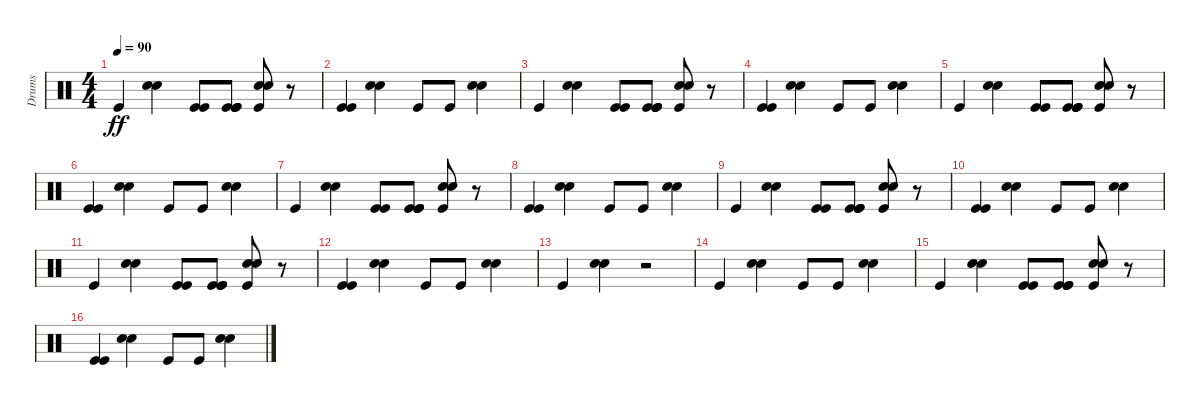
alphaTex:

\track ("Drums" "Drums") {instrument percussion}
\staff {score}
\articulation defaults
\ts (4 4)
\tempo 90
\clef neutral
\ks c "Kick (hit)".4{dy ff}
("Snare (hit) 2" "Hand Clap (hit)").4 ("Kick (hit)" "Kick (hit)").8 ("Kick (hit)" "Kick (hit)" "Kick (hit)" "Kick (hit)").8 ("Snare (hit) 2" "Hand Clap (hit)" "Kick (hit)").8 r.8 |
("Kick (hit)" "Kick (hit)").4 ("Snare (hit) 2" "Hand Clap (hit)").4 "Kick (hit)".8 "Kick (hit)".8 ("Snare (hit) 2" "Hand Clap (hit)").4 |
"Kick (hit)".4 ("Snare (hit) 2" "Hand Clap (hit)").4 ("Kick (hit)" "Kick (hit)").8 ("Kick (hit)" "Kick (hit)" "Kick (hit)" "Kick (hit)").8 ("Snare (hit) 2" "Hand Clap (hit)" "Kick (hit)").8 r.8 |
("Kick (hit)" "Kick (hit)").4 ("Snare (hit) 2" "Hand Clap (hit)").4 "Kick (hit)".8 "Kick (hit)".8 ("Snare (hit) 2" "Hand Clap (hit)").4 |
"Kick (hit)".4 ("Snare (hit) 2" "Hand Clap (hit)").4 ("Kick (hit)" "Kick (hit)").8 ("Kick (hit)" "Kick (hit)" "Kick (hit)" "Kick (hit)").8 ("Snare (hit) 2" "Hand Clap (hit)" "Kick (hit)").8 r.8 |
("Kick (hit)" "Kick (hit)").4 ("Snare (hit) 2" "Hand Clap (hit)").4 "Kick (hit)".8 "Kick (hit)".8 ("Snare (hit) 2" "Hand Clap (hit)").4 |
"Kick (hit)".4 ("Snare (hit) 2" "Hand Clap (hit)").4 ("Kick (hit)" "Kick (hit)").8 ("Kick (hit)" "Kick (hit)" "Kick (hit)" "Kick (hit)").8 ("Snare (hit) 2" "Hand Clap (hit)" "Kick (hit)").8 r.8 |
("Kick (hit)" "Kick (hit)").4 ("Snare (hit) 2" "Hand Clap (hit)").4 "Kick (hit)".8 "Kick (hit)".8 ("Snare (hit) 2" "Hand Clap (hit)").4 |
"Kick (hit)".4 ("Snare (hit) 2" "Hand Clap (hit)").4 ("Kick (hit)" "Kick (hit)").8 ("Kick (hit)" "Kick (hit)" "Kick (hit)" "Kick (hit)").8 ("Snare (hit) 2" "Hand Clap (hit)" "Kick (hit)").8 r.8 |
("Kick (hit)" "Kick (hit)").4 ("Snare (hit) 2" "Hand Clap (hit)").4 "Kick (hit)".8 "Kick (hit)".8 ("Snare (hit) 2" "Hand Clap (hit)").4 |
"Kick (hit)".4 ("Snare (hit) 2" "Hand Clap (hit)").4 ("Kick (hit)" "Kick (hit)").8 ("Kick (hit)" "Kick (hit)" "Kick (hit)" "Kick (hit)").8 ("Snare (hit) 2" "Hand Clap (hit)" "Kick (hit)").8 r.8 |
("Kick (hit)" "Kick (hit)").4 ("Snare (hit) 2" "Hand Clap (hit)").4 "Kick (hit)".8 "Kick (hit)".8 ("Snare (hit) 2" "Hand Clap (hit)").4 |
"Kick (hit)".4 ("Snare (hit) 2" "Hand Clap (hit)").4 r.2 |
"Kick (hit)".4 ("Snare (hit) 2" "Hand Clap (hit)").4 "Kick (hit)".8 "Kick (hit)".8 ("Snare (hit) 2" "Hand Clap (hit)").4 |
"Kick (hit)".4 ("Snare (hit) 2" "Hand Clap (hit)").4 ("Kick (hit)" "Kick (hit)").8 ("Kick (hit)" "Kick (hit)" "Kick (hit)" "Kick (hit)").8 ("Snare (hit) 2" "Hand Clap (hit)" "Kick (hit)").8 r.8 |
("Kick (hit)" "Kick (hit)").4 ("Snare (hit) 2" "Hand Clap (hit)").4 "Kick (hit)".8 "Kick (hit)".8 ("Snare (hit) 2" "Hand Clap (hit)").4
